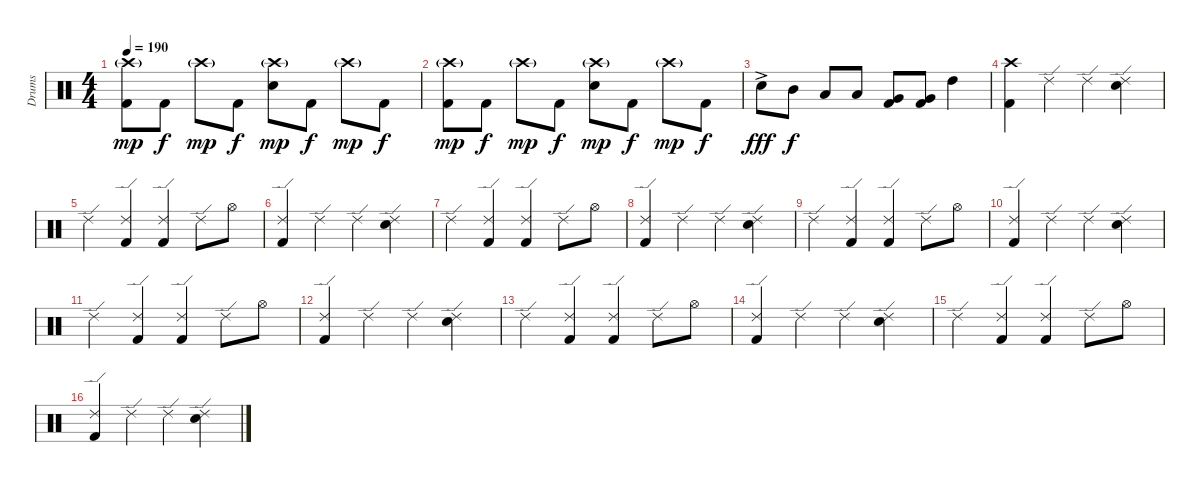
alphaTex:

\track ("Drums" "Drums") {instrument percussion}
\staff {score}
\articulation defaults
\ts (4 4)
\tempo 190
\clef neutral
\ks c
("Crash high (hit)"{g} "Kick (hit) 2").8{dy mp} "Kick (hit) 2".8{dy f} "Crash high (hit)"{g}.8{dy mp} "Kick (hit) 2".8{dy f} ("Crash high (hit)"{g} "Snare (hit) 2").8{dy mp} "Kick (hit) 2".8{dy f} "Crash high (hit)"{g}.8{dy mp} "Kick (hit) 2".8{dy f} |
("Crash high (hit)"{g} "Kick (hit) 2").8{dy mp} "Kick (hit) 2".8{dy f} "Crash high (hit)"{g}.8{dy mp} "Kick (hit) 2".8{dy f} ("Crash high (hit)"{g} "Snare (hit) 2").8{dy mp} "Kick (hit) 2".8{dy f} "Crash high (hit)"{g}.8{dy mp} "Kick (hit) 2".8{dy f} |
"Snare (hit) 2"{ac}.8{dy fff} "Mid Tom (hit)".8{dy f} "Low Tom (hit)".8 "Low Tom (hit)".8 ("Very Low Tom (hit)" "Kick (hit) 2").8 ("Very Low Tom (hit)" "Kick (hit) 2").8 "High Tom (hit)".4 |
("Crash high (hit)" "Kick (hit) 2").4 "Ride (edge) 2".4 "Ride (edge) 2".4 ("Ride (edge) 2" "Snare (hit) 2").4 |
"Ride (edge) 2".4 ("Ride (edge) 2" "Kick (hit) 2").4 ("Ride (edge) 2" "Kick (hit) 2").4 "Ride (edge) 2".8 "Hi-Hat (open)".8 |
("Ride (edge) 2" "Kick (hit) 2").4 "Ride (edge) 2".4 "Ride (edge) 2".4 ("Ride (edge) 2" "Snare (hit) 2").4 |
"Ride (edge) 2".4 ("Ride (edge) 2" "Kick (hit) 2").4 ("Ride (edge) 2" "Kick (hit) 2").4 "Ride (edge) 2".8 "Hi-Hat (open)".8 |
("Ride (edge) 2" "Kick (hit) 2").4 "Ride (edge) 2".4 "Ride (edge) 2".4 ("Ride (edge) 2" "Snare (hit) 2").4 |
"Ride (edge) 2".4 ("Ride (edge) 2" "Kick (hit) 2").4 ("Ride (edge) 2" "Kick (hit) 2").4 "Ride (edge) 2".8 "Hi-Hat (open)".8 |
("Ride (edge) 2" "Kick (hit) 2").4 "Ride (edge) 2".4 "Ride (edge) 2".4 ("Ride (edge) 2" "Snare (hit) 2").4 |
"Ride (edge) 2".4 ("Ride (edge) 2" "Kick (hit) 2").4 ("Ride (edge) 2" "Kick (hit) 2").4 "Ride (edge) 2".8 "Hi-Hat (open)".8 |
("Ride (edge) 2" "Kick (hit) 2").4 "Ride (edge) 2".4 "Ride (edge) 2".4 ("Ride (edge) 2" "Snare (hit) 2").4 |
"Ride (edge) 2".4 ("Ride (edge) 2" "Kick (hit) 2").4 ("Ride (edge) 2" "Kick (hit) 2").4 "Ride (edge) 2".8 "Hi-Hat (open)".8 |
("Ride (edge) 2" "Kick (hit) 2").4 "Ride (edge) 2".4 "Ride (edge) 2".4 ("Ride (edge) 2" "Snare (hit) 2").4 |
"Ride (edge) 2".4 ("Ride (edge) 2" "Kick (hit) 2").4 ("Ride (edge) 2" "Kick (hit) 2").4 "Ride (edge) 2".8 "Hi-Hat (open)".8 |
("Ride (edge) 2" "Kick (hit) 2").4 "Ride (edge) 2".4 "Ride (edge) 2".4 ("Ride (edge) 2" "Snare (hit) 2").4
